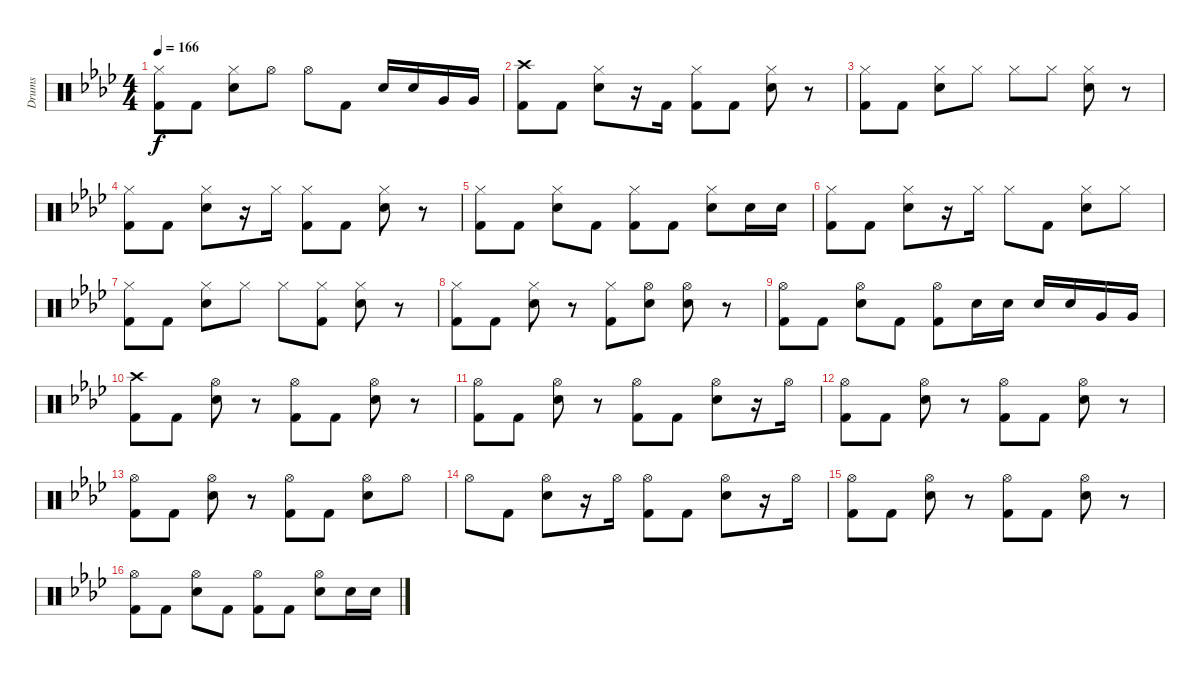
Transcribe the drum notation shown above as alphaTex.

\track ("Drums" "Drums") {instrument percussion}
\staff {score}
\articulation defaults
\ts (4 4)
\tempo 166
\clef neutral
\ks ab
("Hi-Hat (closed)" "Kick (hit) 2").8{dy f} "Kick (hit) 2".8 ("Hi-Hat (closed)" "Electric Snare (hit)").8 "Hi-Hat (open)".8 "Hi-Hat (open)".8 "Kick (hit) 2".8 "Electric Snare (hit)".16 "Electric Snare (hit)".16 "Very Low Tom (hit)".16 "Very Low Tom (hit)".16 |
("Crash high (hit)" "Kick (hit) 2").8 "Kick (hit) 2".8 ("Hi-Hat (closed)" "Electric Snare (hit)").8 r.16 "Kick (hit) 2".16 ("Hi-Hat (closed)" "Kick (hit) 2").8 "Kick (hit) 2".8 ("Hi-Hat (closed)" "Electric Snare (hit)").8 r.8 |
("Hi-Hat (closed)" "Kick (hit) 2").8 "Kick (hit) 2".8 ("Hi-Hat (closed)" "Electric Snare (hit)").8 "Hi-Hat (closed)".8 "Hi-Hat (closed)".8 "Hi-Hat (closed)".8 ("Hi-Hat (closed)" "Electric Snare (hit)").8 r.8 |
("Hi-Hat (closed)" "Kick (hit) 2").8 "Kick (hit) 2".8 ("Hi-Hat (closed)" "Electric Snare (hit)").8 r.16 "Hi-Hat (closed)".16 ("Hi-Hat (closed)" "Kick (hit) 2").8 "Kick (hit) 2".8 ("Hi-Hat (closed)" "Electric Snare (hit)").8 r.8 |
("Hi-Hat (closed)" "Kick (hit) 2").8 "Kick (hit) 2".8 ("Hi-Hat (closed)" "Electric Snare (hit)").8 "Kick (hit) 2".8 ("Hi-Hat (closed)" "Kick (hit) 2").8 "Kick (hit) 2".8 ("Hi-Hat (closed)" "Electric Snare (hit)").8 "Electric Snare (hit)".16 "Electric Snare (hit)".16 |
("Hi-Hat (closed)" "Kick (hit) 2").8 "Kick (hit) 2".8 ("Hi-Hat (closed)" "Electric Snare (hit)").8 r.16 "Hi-Hat (closed)".16 "Hi-Hat (closed)".8 "Kick (hit) 2".8 ("Hi-Hat (closed)" "Electric Snare (hit)").8 "Hi-Hat (closed)".8 |
("Hi-Hat (closed)" "Kick (hit) 2").8 "Kick (hit) 2".8 ("Hi-Hat (closed)" "Electric Snare (hit)").8 "Hi-Hat (closed)".8 "Hi-Hat (closed)".8 ("Hi-Hat (closed)" "Kick (hit) 2").8 ("Hi-Hat (closed)" "Electric Snare (hit)").8 r.8 |
("Hi-Hat (closed)" "Kick (hit) 2").8 "Kick (hit) 2".8 ("Hi-Hat (closed)" "Electric Snare (hit)").8 r.8 ("Hi-Hat (closed)" "Kick (hit) 2").8 ("Hi-Hat (open)" "Electric Snare (hit)").8 ("Hi-Hat (open)" "Electric Snare (hit)").8 r.8 |
("Hi-Hat (open)" "Kick (hit) 2").8 "Kick (hit) 2".8 ("Hi-Hat (open)" "Electric Snare (hit)").8 "Kick (hit) 2".8 ("Hi-Hat (open)" "Kick (hit) 2").8 "Electric Snare (hit)".16 "Electric Snare (hit)".16 "Electric Snare (hit)".16 "Electric Snare (hit)".16 "Very Low Tom (hit)".16 "Very Low Tom (hit)".16 |
("Crash high (hit)" "Kick (hit) 2").8 "Kick (hit) 2".8 ("Hi-Hat (open)" "Electric Snare (hit)").8 r.8 ("Hi-Hat (open)" "Kick (hit) 2").8 "Kick (hit) 2".8 ("Hi-Hat (open)" "Electric Snare (hit)").8 r.8 |
("Hi-Hat (open)" "Kick (hit) 2").8 "Kick (hit) 2".8 ("Hi-Hat (open)" "Electric Snare (hit)").8 r.8 ("Hi-Hat (open)" "Kick (hit) 2").8 "Kick (hit) 2".8 ("Hi-Hat (open)" "Electric Snare (hit)").8 r.16 "Hi-Hat (open)".16 |
("Hi-Hat (open)" "Kick (hit) 2").8 "Kick (hit) 2".8 ("Hi-Hat (open)" "Electric Snare (hit)").8 r.8 ("Hi-Hat (open)" "Kick (hit) 2").8 "Kick (hit) 2".8 ("Hi-Hat (open)" "Electric Snare (hit)").8 r.8 |
("Hi-Hat (open)" "Kick (hit) 2").8 "Kick (hit) 2".8 ("Hi-Hat (open)" "Electric Snare (hit)").8 r.8 ("Hi-Hat (open)" "Kick (hit) 2").8 "Kick (hit) 2".8 ("Hi-Hat (open)" "Electric Snare (hit)").8 "Hi-Hat (open)".8 |
"Hi-Hat (open)".8 "Kick (hit) 2".8 ("Hi-Hat (open)" "Electric Snare (hit)").8 r.16 "Hi-Hat (open)".16 ("Hi-Hat (open)" "Kick (hit) 2").8 "Kick (hit) 2".8 ("Hi-Hat (open)" "Electric Snare (hit)").8 r.16 "Hi-Hat (open)".16 |
("Hi-Hat (open)" "Kick (hit) 2").8 "Kick (hit) 2".8 ("Hi-Hat (open)" "Electric Snare (hit)").8 r.8 ("Hi-Hat (open)" "Kick (hit) 2").8 "Kick (hit) 2".8 ("Hi-Hat (open)" "Electric Snare (hit)").8 r.8 |
("Hi-Hat (open)" "Kick (hit) 2").8 "Kick (hit) 2".8 ("Hi-Hat (open)" "Electric Snare (hit)").8 "Kick (hit) 2".8 ("Hi-Hat (open)" "Kick (hit) 2").8 "Kick (hit) 2".8 ("Hi-Hat (open)" "Electric Snare (hit)").8 "Electric Snare (hit)".16 "Electric Snare (hit)".16
